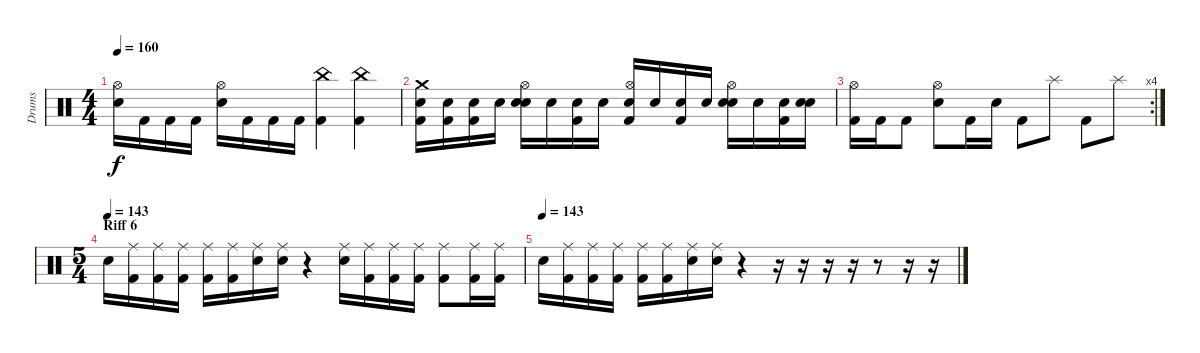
\track ("Drums" "Drums") {instrument percussion}
\staff {score}
\articulation defaults
\ts (4 4)
\tempo 160
\clef neutral
\ks c
("Snare (hit) 2" "Hi-Hat (open)").16{dy f} "Kick (hit) 2".16 "Kick (hit) 2".16 "Kick (hit) 2".16 ("Snare (hit) 2" "Hi-Hat (open)").16 "Kick (hit) 2".16 "Kick (hit) 2".16 "Kick (hit) 2".16 ("Kick (hit) 2" "China (hit)").4 ("Kick (hit) 2" "China (hit)").4 |
("Snare (hit)" "Kick (hit) 2" "Crash medium (hit)").16 ("Snare (hit)" "Kick (hit) 2").16 ("Snare (hit)" "Kick (hit) 2").16 "Snare (hit)".16 ("Snare (hit)" "Snare (hit) 2" "Hi-Hat (open)").16 "Snare (hit)".16 ("Snare (hit)" "Kick (hit) 2").16 "Snare (hit)".16 ("Snare (hit)" "Kick (hit) 2" "Hi-Hat (open)").16 "Snare (hit)".16 ("Snare (hit)" "Kick (hit) 2").16 "Snare (hit)".16 ("Snare (hit)" "Snare (hit) 2" "Hi-Hat (open)").16 "Snare (hit)".16 ("Snare (hit)" "Kick (hit) 2").16 ("Snare (hit)" "Snare (hit) 2").16 |
\rc 4
("Kick (hit) 2" "Hi-Hat (open)").16 "Kick (hit) 2".16 "Kick (hit) 2".8 ("Snare (hit) 2" "Hi-Hat (open)").8 "Kick (hit) 2".16 "Snare (hit) 2".16 "Kick (hit) 2".8 "Splash (hit)".8 "Kick (hit) 2".8 "Splash (hit)".8 |
\ts (5 4)
\section ("" "Riff 6")
\tempo (143)
"Snare (hit) 2".16 ("Ride (middle)" "Kick (hit) 2").16 ("Ride (middle)" "Kick (hit) 2").16 ("Ride (middle)" "Kick (hit) 2").16 ("Ride (middle)" "Kick (hit) 2").16 ("Ride (middle)" "Kick (hit) 2").16 ("Ride (middle)" "Snare (hit) 2").16 ("Ride (middle)" "Snare (hit) 2").16 r.4 ("Ride (middle)" "Snare (hit) 2").16 ("Ride (middle)" "Kick (hit) 2").16 ("Ride (middle)" "Kick (hit) 2").16 ("Ride (middle)" "Kick (hit) 2").16 ("Ride (middle)" "Kick (hit) 2").8 ("Ride (middle)" "Kick (hit) 2").16 ("Ride (middle)" "Kick (hit) 2").16 |
\tempo (143)
"Snare (hit) 2".16 ("Ride (middle)" "Kick (hit) 2").16 ("Ride (middle)" "Kick (hit) 2").16 ("Ride (middle)" "Kick (hit) 2").16 ("Ride (middle)" "Kick (hit) 2").16 ("Ride (middle)" "Kick (hit) 2").16 ("Ride (middle)" "Snare (hit) 2").16 ("Ride (middle)" "Snare (hit) 2").16 r.4 r.16 r.16 r.16 r.16 r.8 r.16 r.16
